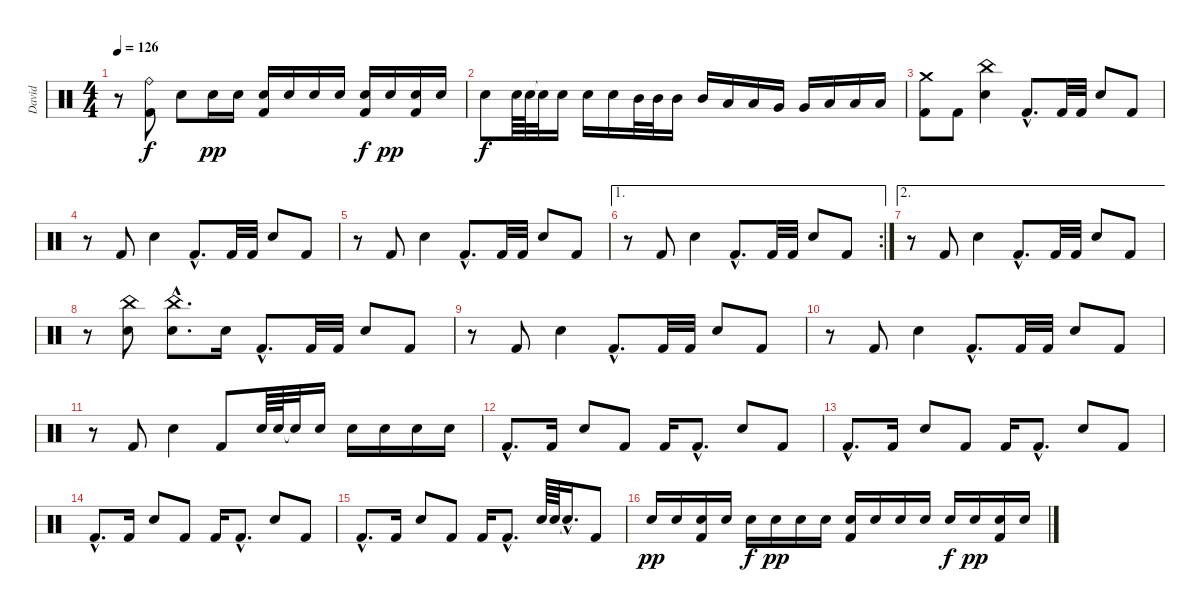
\track ("David" "David") {instrument percussion}
\staff {score}
\articulation defaults
\ts (4 4)
\tempo 126
\clef neutral
\ks c
r.8{dy f} ("Ride (bell)" "Kick (hit) 2").8 "Snare (hit) 2".8 "Snare (hit) 2".16{dy pp} "Snare (hit) 2".16 ("Snare (hit) 2" "Kick (hit) 2").16 "Snare (hit) 2".16 "Snare (hit) 2".16 "Snare (hit) 2".16 ("Snare (hit) 2" "Kick (hit) 2").16{dy f} "Snare (hit) 2".16{dy pp} ("Snare (hit) 2" "Kick (hit) 2").16 "Snare (hit) 2".16 |
"Snare (hit) 2".8{dy f} "Snare (hit) 2".64 "Snare (hit) 2".64 "Snare (hit)"{t}.32 "Snare (hit) 2".16 "Snare (hit) 2".16 "Snare (hit) 2".16 "Mid Tom (hit)".32 "Mid Tom (hit)".32 "Mid Tom (hit)".16 "Mid Tom (hit)".16 "Low Tom (hit)".16 "Low Tom (hit)".16 "Very Low Tom (hit)".16 "Very Low Tom (hit)".16 "Low Floor Tom (hit)".16 "Low Floor Tom (hit)".16 "Low Floor Tom (hit)".16 |
("Crash medium (hit)" "Kick (hit) 2").8 "Kick (hit) 2".8 ("China (hit)" "Snare (hit) 2").4 "Kick (hit) 2"{hac}.8{d} "Kick (hit) 2".32 "Kick (hit) 2".32 "Snare (hit) 2".8 "Kick (hit) 2".8 |
r.8 "Kick (hit) 2".8 "Snare (hit) 2".4 "Kick (hit) 2"{hac}.8{d} "Kick (hit) 2".32 "Kick (hit) 2".32 "Snare (hit) 2".8 "Kick (hit) 2".8 |
r.8 "Kick (hit) 2".8 "Snare (hit) 2".4 "Kick (hit) 2"{hac}.8{d} "Kick (hit) 2".32 "Kick (hit) 2".32 "Snare (hit) 2".8 "Kick (hit) 2".8 |
\ae 1
\rc 2
r.8 "Kick (hit) 2".8 "Snare (hit) 2".4 "Kick (hit) 2"{hac}.8{d} "Kick (hit) 2".32 "Kick (hit) 2".32 "Snare (hit) 2".8 "Kick (hit) 2".8 |
\ae 2
r.8 "Kick (hit) 2".8 "Snare (hit) 2".4 "Kick (hit) 2"{hac}.8{d} "Kick (hit) 2".32 "Kick (hit) 2".32 "Snare (hit) 2".8 "Kick (hit) 2".8 |
r.8 ("China (hit)" "Snare (hit) 2").8 ("China (hit)"{hac} "Snare (hit) 2"{hac}).8{d} "Snare (hit) 2".16 "Kick (hit) 2"{hac}.8{d} "Kick (hit) 2".32 "Kick (hit) 2".32 "Snare (hit) 2".8 "Kick (hit) 2".8 |
r.8 "Kick (hit) 2".8 "Snare (hit) 2".4 "Kick (hit) 2"{hac}.8{d} "Kick (hit) 2".32 "Kick (hit) 2".32 "Snare (hit) 2".8 "Kick (hit) 2".8 |
r.8 "Kick (hit) 2".8 "Snare (hit) 2".4 "Kick (hit) 2"{hac}.8{d} "Kick (hit) 2".32 "Kick (hit) 2".32 "Snare (hit) 2".8 "Kick (hit) 2".8 |
r.8 "Kick (hit) 2".8 "Snare (hit) 2".4 "Kick (hit) 2".8 "Snare (hit) 2".64 "Snare (hit) 2".64 "Snare (hit)"{t}.32 "Snare (hit) 2".16 "Snare (hit) 2".16 "Snare (hit) 2".16 "Snare (hit) 2".16 "Snare (hit) 2".16 |
"Kick (hit) 2"{hac}.8{d} "Kick (hit) 2".16 "Snare (hit) 2".8 "Kick (hit) 2".8 "Kick (hit) 2".16 "Kick (hit) 2"{hac}.8{d} "Snare (hit) 2".8 "Kick (hit) 2".8 |
"Kick (hit) 2"{hac}.8{d} "Kick (hit) 2".16 "Snare (hit) 2".8 "Kick (hit) 2".8 "Kick (hit) 2".16 "Kick (hit) 2"{hac}.8{d} "Snare (hit) 2".8 "Kick (hit) 2".8 |
"Kick (hit) 2"{hac}.8{d} "Kick (hit) 2".16 "Snare (hit) 2".8 "Kick (hit) 2".8 "Kick (hit) 2".16 "Kick (hit) 2"{hac}.8{d} "Snare (hit) 2".8 "Kick (hit) 2".8 |
"Kick (hit) 2"{hac}.8{d} "Kick (hit) 2".16 "Snare (hit) 2".8 "Kick (hit) 2".8 "Kick (hit) 2".16 "Kick (hit) 2"{hac}.8{d} "Snare (hit) 2".64 "Snare (hit) 2".64 "Snare (hit)"{hac t}.16{d} "Kick (hit) 2".8 |
"Snare (hit) 2".16{dy pp} "Snare (hit) 2".16 ("Snare (hit) 2" "Kick (hit) 2").16 "Snare (hit) 2".16 "Snare (hit) 2".16{dy f} "Snare (hit) 2".16{dy pp} "Snare (hit) 2".16 "Snare (hit) 2".16 ("Snare (hit) 2" "Kick (hit) 2").16 "Snare (hit) 2".16 "Snare (hit) 2".16 "Snare (hit) 2".16 "Snare (hit) 2".16{dy f} "Snare (hit) 2".16{dy pp} ("Snare (hit) 2" "Kick (hit) 2").16 "Snare (hit) 2".16
